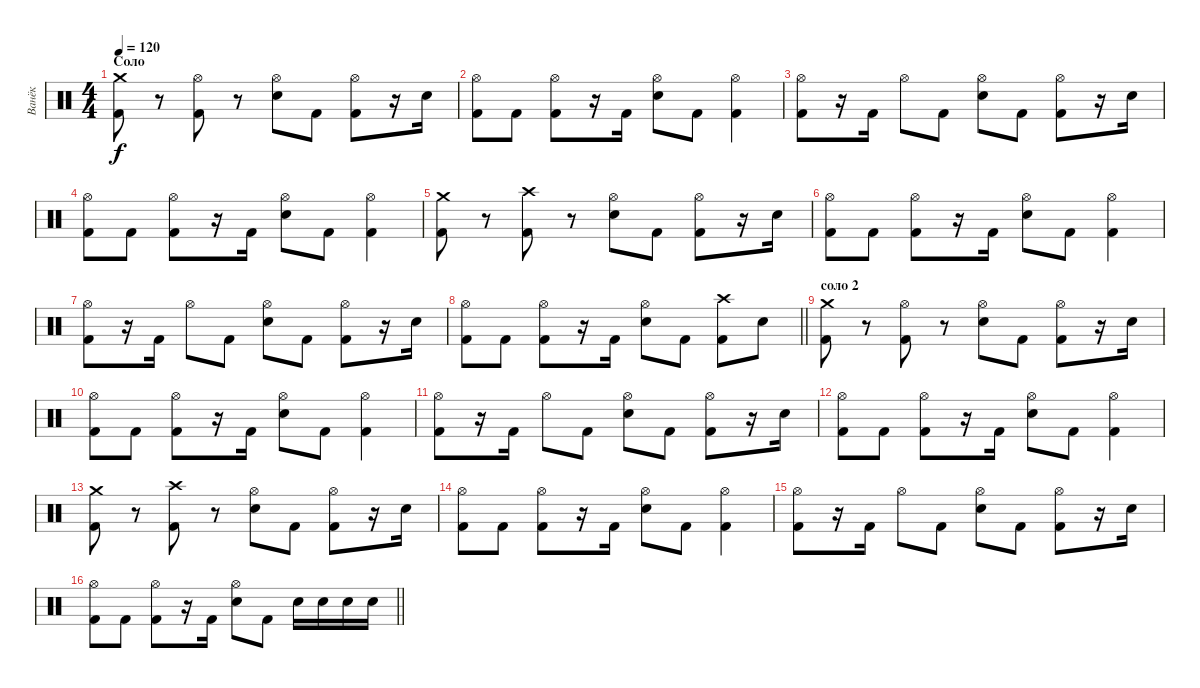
\track ("Ванёк" "Ванёк") {instrument percussion}
\staff {score}
\articulation defaults
\ts (4 4)
\section ("" "Соло")
\tempo 120
\clef neutral
\ks c
("Crash medium (hit)" "Kick (hit) 2").8{dy f} r.8 ("Hi-Hat (open)" "Kick (hit) 2").8 r.8 ("Hi-Hat (open)" "Snare (hit) 2").8 "Kick (hit) 2".8 ("Hi-Hat (open)" "Kick (hit) 2").8 r.16 "Snare (hit) 2".16 |
("Hi-Hat (open)" "Kick (hit) 2").8 "Kick (hit) 2".8 ("Hi-Hat (open)" "Kick (hit) 2").8 r.16 "Kick (hit) 2".16 ("Hi-Hat (open)" "Snare (hit) 2").8 "Kick (hit) 2".8 ("Hi-Hat (open)" "Kick (hit) 2").4 |
("Hi-Hat (open)" "Kick (hit) 2").8 r.16 "Kick (hit) 2".16 "Hi-Hat (open)".8 "Kick (hit) 2".8 ("Hi-Hat (open)" "Snare (hit) 2").8 "Kick (hit) 2".8 ("Hi-Hat (open)" "Kick (hit) 2").8 r.16 "Snare (hit) 2".16 |
("Hi-Hat (open)" "Kick (hit) 2").8 "Kick (hit) 2".8 ("Hi-Hat (open)" "Kick (hit) 2").8 r.16 "Kick (hit) 2".16 ("Hi-Hat (open)" "Snare (hit) 2").8 "Kick (hit) 2".8 ("Hi-Hat (open)" "Kick (hit) 2").4 |
("Crash medium (hit)" "Kick (hit) 2").8 r.8 ("Crash high (hit)" "Kick (hit) 2").8 r.8 ("Hi-Hat (open)" "Snare (hit) 2").8 "Kick (hit) 2".8 ("Hi-Hat (open)" "Kick (hit) 2").8 r.16 "Snare (hit) 2".16 |
("Hi-Hat (open)" "Kick (hit) 2").8 "Kick (hit) 2".8 ("Hi-Hat (open)" "Kick (hit) 2").8 r.16 "Kick (hit) 2".16 ("Hi-Hat (open)" "Snare (hit) 2").8 "Kick (hit) 2".8 ("Hi-Hat (open)" "Kick (hit) 2").4 |
("Hi-Hat (open)" "Kick (hit) 2").8 r.16 "Kick (hit) 2".16 "Hi-Hat (open)".8 "Kick (hit) 2".8 ("Hi-Hat (open)" "Snare (hit) 2").8 "Kick (hit) 2".8 ("Hi-Hat (open)" "Kick (hit) 2").8 r.16 "Snare (hit) 2".16 |
\barLineRight lightlight
("Hi-Hat (open)" "Kick (hit) 2").8 "Kick (hit) 2".8 ("Hi-Hat (open)" "Kick (hit) 2").8 r.16 "Kick (hit) 2".16 ("Hi-Hat (open)" "Snare (hit) 2").8 "Kick (hit) 2".8 ("Crash high (hit)" "Kick (hit) 2").8 "Snare (hit) 2".8 |
\section ("" "соло 2")
("Crash medium (hit)" "Kick (hit) 2").8 r.8 ("Hi-Hat (open)" "Kick (hit) 2").8 r.8 ("Hi-Hat (open)" "Snare (hit) 2").8 "Kick (hit) 2".8 ("Hi-Hat (open)" "Kick (hit) 2").8 r.16 "Snare (hit) 2".16 |
("Hi-Hat (open)" "Kick (hit) 2").8 "Kick (hit) 2".8 ("Hi-Hat (open)" "Kick (hit) 2").8 r.16 "Kick (hit) 2".16 ("Hi-Hat (open)" "Snare (hit) 2").8 "Kick (hit) 2".8 ("Hi-Hat (open)" "Kick (hit) 2").4 |
("Hi-Hat (open)" "Kick (hit) 2").8 r.16 "Kick (hit) 2".16 "Hi-Hat (open)".8 "Kick (hit) 2".8 ("Hi-Hat (open)" "Snare (hit) 2").8 "Kick (hit) 2".8 ("Hi-Hat (open)" "Kick (hit) 2").8 r.16 "Snare (hit) 2".16 |
("Hi-Hat (open)" "Kick (hit) 2").8 "Kick (hit) 2".8 ("Hi-Hat (open)" "Kick (hit) 2").8 r.16 "Kick (hit) 2".16 ("Hi-Hat (open)" "Snare (hit) 2").8 "Kick (hit) 2".8 ("Hi-Hat (open)" "Kick (hit) 2").4 |
("Crash medium (hit)" "Kick (hit) 2").8 r.8 ("Crash high (hit)" "Kick (hit) 2").8 r.8 ("Hi-Hat (open)" "Snare (hit) 2").8 "Kick (hit) 2".8 ("Hi-Hat (open)" "Kick (hit) 2").8 r.16 "Snare (hit) 2".16 |
("Hi-Hat (open)" "Kick (hit) 2").8 "Kick (hit) 2".8 ("Hi-Hat (open)" "Kick (hit) 2").8 r.16 "Kick (hit) 2".16 ("Hi-Hat (open)" "Snare (hit) 2").8 "Kick (hit) 2".8 ("Hi-Hat (open)" "Kick (hit) 2").4 |
("Hi-Hat (open)" "Kick (hit) 2").8 r.16 "Kick (hit) 2".16 "Hi-Hat (open)".8 "Kick (hit) 2".8 ("Hi-Hat (open)" "Snare (hit) 2").8 "Kick (hit) 2".8 ("Hi-Hat (open)" "Kick (hit) 2").8 r.16 "Snare (hit) 2".16 |
\barLineRight lightlight
("Hi-Hat (open)" "Kick (hit) 2").8 "Kick (hit) 2".8 ("Hi-Hat (open)" "Kick (hit) 2").8 r.16 "Kick (hit) 2".16 ("Hi-Hat (open)" "Snare (hit) 2").8 "Kick (hit) 2".8 "Snare (hit) 2".16 "Snare (hit) 2".16 "Snare (hit) 2".16 "Snare (hit) 2".16
